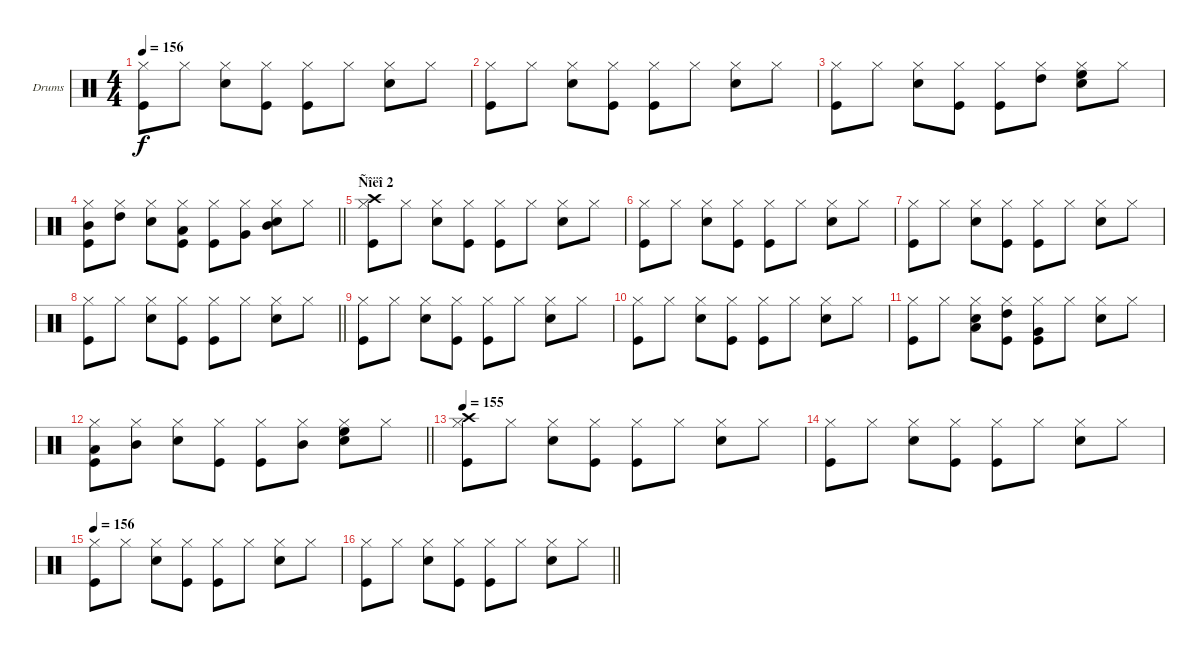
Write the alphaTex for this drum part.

\bracketExtendMode groupsimilarinstruments
\firstSystemTrackNameOrientation horizontal
\otherSystemsTrackNameOrientation horizontal
\track ("Drumkit" "Drums") {instrument percussion}
\staff {score}
\articulation defaults
\ts (4 4)
\tempo 156
\clef neutral
\ks c
("Hi-Hat (closed)" "Kick (hit)").8{dy f} "Hi-Hat (closed)".8 ("Hi-Hat (closed)" "Snare (hit) 2").8 ("Hi-Hat (closed)" "Kick (hit)").8 ("Hi-Hat (closed)" "Kick (hit)").8 "Hi-Hat (closed)".8 ("Hi-Hat (closed)" "Snare (hit) 2").8 "Hi-Hat (closed)".8 |
("Hi-Hat (closed)" "Kick (hit)").8 "Hi-Hat (closed)".8 ("Hi-Hat (closed)" "Snare (hit) 2").8 ("Hi-Hat (closed)" "Kick (hit)").8 ("Hi-Hat (closed)" "Kick (hit)").8 "Hi-Hat (closed)".8 ("Hi-Hat (closed)" "Snare (hit) 2").8 "Hi-Hat (closed)".8 |
("Hi-Hat (closed)" "Kick (hit)").8 "Hi-Hat (closed)".8 ("Hi-Hat (closed)" "Snare (hit) 2").8 ("Hi-Hat (closed)" "Kick (hit)").8 ("Hi-Hat (closed)" "Kick (hit)").8 ("Hi-Hat (closed)" "High Tom (hit)").8 ("Hi-Hat (closed)" "Snare (hit) 2" "High Floor Tom (hit)").8 "Hi-Hat (closed)".8 |
\barLineRight lightlight
("Hi-Hat (closed)" "Kick (hit)" "Mid Tom (hit)").8 ("Hi-Hat (closed)" "High Tom (hit)").8 ("Hi-Hat (closed)" "Snare (hit) 2").8 ("Hi-Hat (closed)" "Kick (hit)" "Low Tom (hit)").8 ("Hi-Hat (closed)" "Kick (hit)").8 ("Hi-Hat (closed)" "Very Low Tom (hit)").8 ("Hi-Hat (closed)" "Snare (hit) 2" "Mid Tom (hit)").8 "Hi-Hat (closed)".8 |
\section ("" "Ñîëî 2")
("Hi-Hat (closed)" "Kick (hit)" "Crash high (hit)").8 "Hi-Hat (closed)".8 ("Hi-Hat (closed)" "Snare (hit) 2").8 ("Hi-Hat (closed)" "Kick (hit)").8 ("Hi-Hat (closed)" "Kick (hit)").8 "Hi-Hat (closed)".8 ("Hi-Hat (closed)" "Snare (hit) 2").8 "Hi-Hat (closed)".8 |
("Hi-Hat (closed)" "Kick (hit)").8 "Hi-Hat (closed)".8 ("Hi-Hat (closed)" "Snare (hit) 2").8 ("Hi-Hat (closed)" "Kick (hit)").8 ("Hi-Hat (closed)" "Kick (hit)").8 "Hi-Hat (closed)".8 ("Hi-Hat (closed)" "Snare (hit) 2").8 "Hi-Hat (closed)".8 |
("Hi-Hat (closed)" "Kick (hit)").8 "Hi-Hat (closed)".8 ("Hi-Hat (closed)" "Snare (hit) 2").8 ("Hi-Hat (closed)" "Kick (hit)").8 ("Hi-Hat (closed)" "Kick (hit)").8 "Hi-Hat (closed)".8 ("Hi-Hat (closed)" "Snare (hit) 2").8 "Hi-Hat (closed)".8 |
\barLineRight lightlight
("Hi-Hat (closed)" "Kick (hit)").8 "Hi-Hat (closed)".8 ("Hi-Hat (closed)" "Snare (hit) 2").8 ("Hi-Hat (closed)" "Kick (hit)").8 ("Hi-Hat (closed)" "Kick (hit)").8 "Hi-Hat (closed)".8 ("Hi-Hat (closed)" "Snare (hit) 2").8 "Hi-Hat (closed)".8 |
("Hi-Hat (closed)" "Kick (hit)").8 "Hi-Hat (closed)".8 ("Hi-Hat (closed)" "Snare (hit) 2").8 ("Hi-Hat (closed)" "Kick (hit)").8 ("Hi-Hat (closed)" "Kick (hit)").8 "Hi-Hat (closed)".8 ("Hi-Hat (closed)" "Snare (hit) 2").8 "Hi-Hat (closed)".8 |
("Hi-Hat (closed)" "Kick (hit)").8 "Hi-Hat (closed)".8 ("Hi-Hat (closed)" "Snare (hit) 2").8 ("Hi-Hat (closed)" "Kick (hit)").8 ("Hi-Hat (closed)" "Kick (hit)").8 "Hi-Hat (closed)".8 ("Hi-Hat (closed)" "Snare (hit) 2").8 "Hi-Hat (closed)".8 |
("Hi-Hat (closed)" "Kick (hit)").8 "Hi-Hat (closed)".8 ("Hi-Hat (closed)" "Snare (hit) 2" "Low Tom (hit)").8 ("Hi-Hat (closed)" "Kick (hit)" "High Tom (hit)").8 ("Hi-Hat (closed)" "Kick (hit)" "Very Low Tom (hit)").8 "Hi-Hat (closed)".8 ("Hi-Hat (closed)" "Snare (hit) 2").8 "Hi-Hat (closed)".8 |
\barLineRight lightlight
("Hi-Hat (closed)" "Kick (hit)" "Low Tom (hit)").8 ("Hi-Hat (closed)" "Mid Tom (hit)").8 ("Hi-Hat (closed)" "Snare (hit) 2").8 ("Hi-Hat (closed)" "Kick (hit)").8 ("Hi-Hat (closed)" "Kick (hit)").8 ("Hi-Hat (closed)" "Mid Tom (hit)").8 ("Hi-Hat (closed)" "Snare (hit) 2" "High Floor Tom (hit)").8 "Hi-Hat (closed)".8 |
\tempo 155
("Hi-Hat (closed)" "Kick (hit)" "Crash high (hit)").8 "Hi-Hat (closed)".8 ("Hi-Hat (closed)" "Snare (hit) 2").8 ("Hi-Hat (closed)" "Kick (hit)").8 ("Hi-Hat (closed)" "Kick (hit)").8 "Hi-Hat (closed)".8 ("Hi-Hat (closed)" "Snare (hit) 2").8 "Hi-Hat (closed)".8 |
("Hi-Hat (closed)" "Kick (hit)").8 "Hi-Hat (closed)".8 ("Hi-Hat (closed)" "Snare (hit) 2").8 ("Hi-Hat (closed)" "Kick (hit)").8 ("Hi-Hat (closed)" "Kick (hit)").8 "Hi-Hat (closed)".8 ("Hi-Hat (closed)" "Snare (hit) 2").8 "Hi-Hat (closed)".8 |
\tempo 156
("Hi-Hat (closed)" "Kick (hit)").8 "Hi-Hat (closed)".8 ("Hi-Hat (closed)" "Snare (hit) 2").8 ("Hi-Hat (closed)" "Kick (hit)").8 ("Hi-Hat (closed)" "Kick (hit)").8 "Hi-Hat (closed)".8 ("Hi-Hat (closed)" "Snare (hit) 2").8 "Hi-Hat (closed)".8 |
\barLineRight lightlight
("Hi-Hat (closed)" "Kick (hit)").8 "Hi-Hat (closed)".8 ("Hi-Hat (closed)" "Snare (hit) 2").8 ("Hi-Hat (closed)" "Kick (hit)").8 ("Hi-Hat (closed)" "Kick (hit)").8 "Hi-Hat (closed)".8 ("Hi-Hat (closed)" "Snare (hit) 2").8 "Hi-Hat (closed)".8
